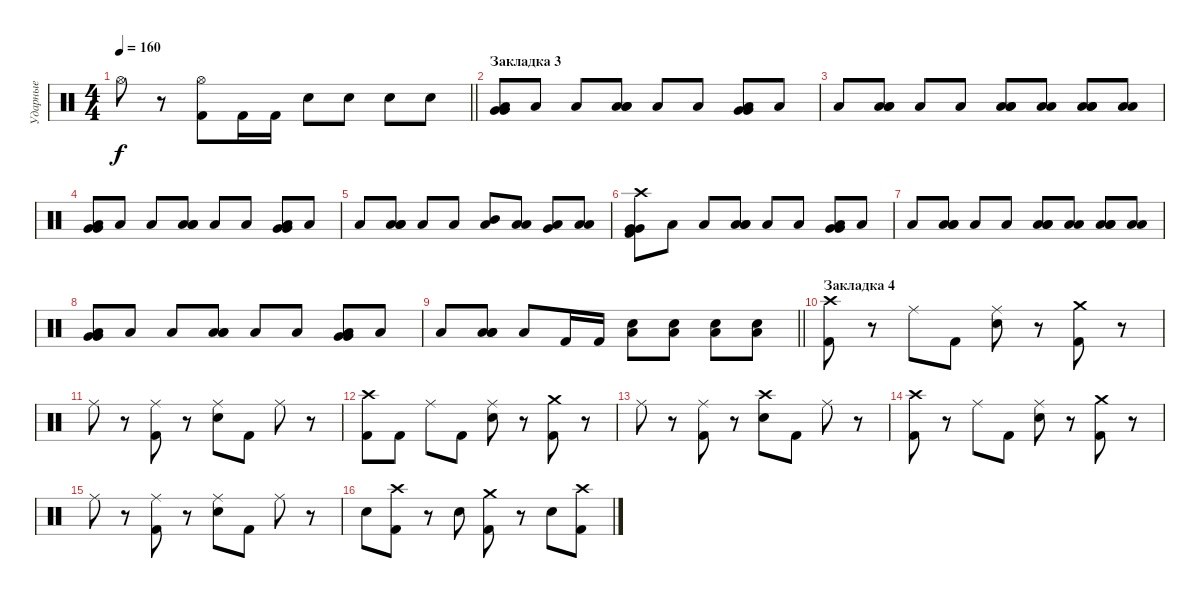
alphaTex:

\track ("Ударные" "Ударные") {instrument percussion}
\staff {score}
\articulation defaults
\ts (4 4)
\tempo 160
\clef neutral
\barLineRight lightlight
\ks c "Hi-Hat (open)".8{dy f}
r.8 ("Hi-Hat (open)" "Kick (hit) 2").8 "Kick (hit) 2".16 "Kick (hit) 2".16 "Snare (hit) 2".8 "Snare (hit) 2".8 "Snare (hit) 2".8 "Snare (hit) 2".8 |
\section ("" "Закладка 3")
("Very Low Tom (hit)" "Very Low Tom (hit)" "Low Floor Tom (hit)").8 "Low Floor Tom (hit)".8 "Low Floor Tom (hit)".8 ("Low Tom (hit)" "Low Tom (hit)" "Low Floor Tom (hit)").8 "Low Floor Tom (hit)".8 "Low Floor Tom (hit)".8 ("Very Low Tom (hit)" "Very Low Tom (hit)" "Low Floor Tom (hit)").8 "Low Floor Tom (hit)".8 |
"Low Floor Tom (hit)".8 ("Low Tom (hit)" "Low Tom (hit)" "Low Floor Tom (hit)").8 "Low Floor Tom (hit)".8 "Low Floor Tom (hit)".8 ("Low Floor Tom (hit)" "Low Tom (hit)" "Low Floor Tom (hit)").8 ("Low Tom (hit)" "Low Floor Tom (hit)").8 ("Low Floor Tom (hit)" "Low Tom (hit)" "Low Floor Tom (hit)").8 ("Low Tom (hit)" "Low Floor Tom (hit)").8 |
("Very Low Tom (hit)" "Very Low Tom (hit)" "Low Floor Tom (hit)").8 "Low Floor Tom (hit)".8 "Low Floor Tom (hit)".8 ("Low Tom (hit)" "Low Tom (hit)" "Low Floor Tom (hit)").8 "Low Floor Tom (hit)".8 "Low Floor Tom (hit)".8 ("Very Low Tom (hit)" "Very Low Tom (hit)" "Low Floor Tom (hit)").8 "Low Floor Tom (hit)".8 |
"Low Floor Tom (hit)".8 ("Low Tom (hit)" "Low Tom (hit)" "Low Floor Tom (hit)").8 "Low Floor Tom (hit)".8 "Low Floor Tom (hit)".8 ("Mid Tom (hit)" "Low Floor Tom (hit)").8 ("Low Tom (hit)" "Low Floor Tom (hit)").8 ("Very Low Tom (hit)" "Low Floor Tom (hit)").8 ("Low Floor Tom (hit)" "Low Floor Tom (hit)").8 |
("Crash high (hit)" "Very Low Tom (hit)" "Very Low Tom (hit)" "Kick (hit) 2").8 "Low Floor Tom (hit)".8 "Low Floor Tom (hit)".8 ("Low Tom (hit)" "Low Tom (hit)" "Low Floor Tom (hit)").8 "Low Floor Tom (hit)".8 "Low Floor Tom (hit)".8 ("Very Low Tom (hit)" "Very Low Tom (hit)" "Low Floor Tom (hit)").8 "Low Floor Tom (hit)".8 |
"Low Floor Tom (hit)".8 ("Low Tom (hit)" "Low Tom (hit)" "Low Floor Tom (hit)").8 "Low Floor Tom (hit)".8 "Low Floor Tom (hit)".8 ("Low Floor Tom (hit)" "Low Tom (hit)" "Low Floor Tom (hit)").8 ("Low Tom (hit)" "Low Floor Tom (hit)").8 ("Low Floor Tom (hit)" "Low Tom (hit)" "Low Floor Tom (hit)").8 ("Low Tom (hit)" "Low Floor Tom (hit)").8 |
("Very Low Tom (hit)" "Very Low Tom (hit)" "Low Floor Tom (hit)").8 "Low Floor Tom (hit)".8 "Low Floor Tom (hit)".8 ("Low Tom (hit)" "Low Tom (hit)" "Low Floor Tom (hit)").8 "Low Floor Tom (hit)".8 "Low Floor Tom (hit)".8 ("Very Low Tom (hit)" "Very Low Tom (hit)" "Low Floor Tom (hit)").8 "Low Floor Tom (hit)".8 |
\barLineRight lightlight "Low Floor Tom (hit)".8
("Low Tom (hit)" "Low Tom (hit)" "Low Floor Tom (hit)").8 "Low Floor Tom (hit)".8 "Kick (hit) 2".16 "Kick (hit) 2".16 ("Snare (hit) 2" "Low Floor Tom (hit)").8 ("Snare (hit) 2" "Low Floor Tom (hit)").8 ("Snare (hit) 2" "Low Floor Tom (hit)").8 ("Snare (hit) 2" "Low Floor Tom (hit)").8 |
\section ("" "Закладка 4")
("Crash high (hit)" "Kick (hit) 2").8 r.8 "Ride (middle)".8 "Kick (hit) 2".8 ("Ride (middle)" "Snare (hit) 2").8 r.8 ("Crash medium (hit)" "Kick (hit) 2").8 r.8 |
"Ride (middle)".8 r.8 ("Ride (middle)" "Kick (hit) 2").8 r.8 ("Ride (middle)" "Snare (hit) 2").8 "Kick (hit) 2".8 "Ride (middle)".8 r.8 |
("Crash high (hit)" "Kick (hit) 2").8 "Kick (hit) 2".8 "Ride (middle)".8 "Kick (hit) 2".8 ("Ride (middle)" "Snare (hit) 2").8 r.8 ("Crash medium (hit)" "Kick (hit) 2").8 r.8 |
"Ride (middle)".8 r.8 ("Ride (middle)" "Kick (hit) 2").8 r.8 ("Crash high (hit)" "Snare (hit) 2").8 "Kick (hit) 2".8 "Ride (middle)".8 r.8 |
("Crash high (hit)" "Kick (hit) 2").8 r.8 "Ride (middle)".8 "Kick (hit) 2".8 ("Ride (middle)" "Snare (hit) 2").8 r.8 ("Crash medium (hit)" "Kick (hit) 2").8 r.8 |
"Ride (middle)".8 r.8 ("Ride (middle)" "Kick (hit) 2").8 r.8 ("Ride (middle)" "Snare (hit) 2").8 "Kick (hit) 2".8 "Ride (middle)".8 r.8 |
"Snare (hit) 2".8 ("Crash high (hit)" "Kick (hit) 2").8 r.8 "Snare (hit) 2".8 ("Crash medium (hit)" "Kick (hit) 2").8 r.8 "Snare (hit) 2".8 ("Crash high (hit)" "Kick (hit) 2").8
